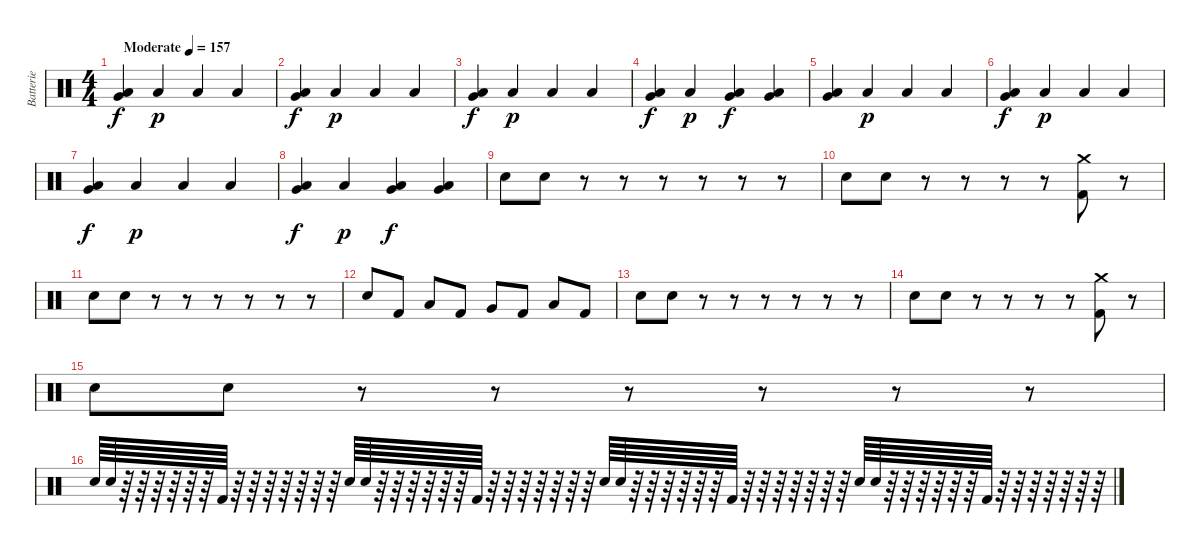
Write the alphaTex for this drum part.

\track ("Batterie" "Batterie") {instrument percussion}
\staff {score}
\articulation defaults
\ts (4 4)
\tempo (157 "Moderate")
\clef neutral
\ks c
("Low Floor Tom (hit)" "Very Low Tom (hit)").4{dy f} "Low Floor Tom (hit)".4{dy p} "Low Floor Tom (hit)".4 "Low Floor Tom (hit)".4 |
("Low Floor Tom (hit)" "Very Low Tom (hit)").4{dy f} "Low Floor Tom (hit)".4{dy p} "Low Floor Tom (hit)".4 "Low Floor Tom (hit)".4 |
("Low Floor Tom (hit)" "Very Low Tom (hit)").4{dy f} "Low Floor Tom (hit)".4{dy p} "Low Floor Tom (hit)".4 "Low Floor Tom (hit)".4 |
("Low Floor Tom (hit)" "Very Low Tom (hit)").4{dy f} "Low Floor Tom (hit)".4{dy p} ("Low Floor Tom (hit)" "Very Low Tom (hit)").4{dy f} ("Low Floor Tom (hit)" "Very Low Tom (hit)").4 |
("Low Floor Tom (hit)" "Very Low Tom (hit)").4 "Low Floor Tom (hit)".4{dy p} "Low Floor Tom (hit)".4 "Low Floor Tom (hit)".4 |
("Low Floor Tom (hit)" "Very Low Tom (hit)").4{dy f} "Low Floor Tom (hit)".4{dy p} "Low Floor Tom (hit)".4 "Low Floor Tom (hit)".4 |
("Low Floor Tom (hit)" "Very Low Tom (hit)").4{dy f} "Low Floor Tom (hit)".4{dy p} "Low Floor Tom (hit)".4 "Low Floor Tom (hit)".4 |
("Low Floor Tom (hit)" "Very Low Tom (hit)").4{dy f} "Low Floor Tom (hit)".4{dy p} ("Low Floor Tom (hit)" "Very Low Tom (hit)").4{dy f} ("Low Floor Tom (hit)" "Very Low Tom (hit)").4 |
"Electric Snare (hit)".8 "Electric Snare (hit)".8 r.8 r.8 r.8 r.8 r.8 r.8 |
"Electric Snare (hit)".8 "Electric Snare (hit)".8 r.8 r.8 r.8 r.8 ("Kick (hit) 2" "Crash medium (hit)").8 r.8 |
"Electric Snare (hit)".8 "Electric Snare (hit)".8 r.8 r.8 r.8 r.8 r.8 r.8 |
"Electric Snare (hit)".8 "Kick (hit) 2".8 "Low Tom (hit)".8 "Kick (hit) 2".8 "Very Low Tom (hit)".8 "Kick (hit) 2".8 "Low Floor Tom (hit)".8 "Kick (hit) 2".8 |
"Electric Snare (hit)".8 "Electric Snare (hit)".8 r.8 r.8 r.8 r.8 r.8 r.8 |
"Electric Snare (hit)".8 "Electric Snare (hit)".8 r.8 r.8 r.8 r.8 ("Kick (hit) 2" "Crash medium (hit)").8 r.8 |
"Electric Snare (hit)".8 "Electric Snare (hit)".8 r.8 r.8 r.8 r.8 r.8 r.8 |
"Electric Snare (hit)".64 "Electric Snare (hit)".64 r.64 r.64 r.64 r.64 r.64 r.64 "Kick (hit) 2".64 r.64 r.64 r.64 r.64 r.64 r.64 r.64 "Electric Snare (hit)".64 "Electric Snare (hit)".64 r.64 r.64 r.64 r.64 r.64 r.64 "Kick (hit) 2".64 r.64 r.64 r.64 r.64 r.64 r.64 r.64 "Electric Snare (hit)".64 "Electric Snare (hit)".64 r.64 r.64 r.64 r.64 r.64 r.64 "Kick (hit) 2".64 r.64 r.64 r.64 r.64 r.64 r.64 r.64 "Electric Snare (hit)".64 "Electric Snare (hit)".64 r.64 r.64 r.64 r.64 r.64 r.64 "Kick (hit) 2".64 r.64 r.64 r.64 r.64 r.64 r.64 r.64
